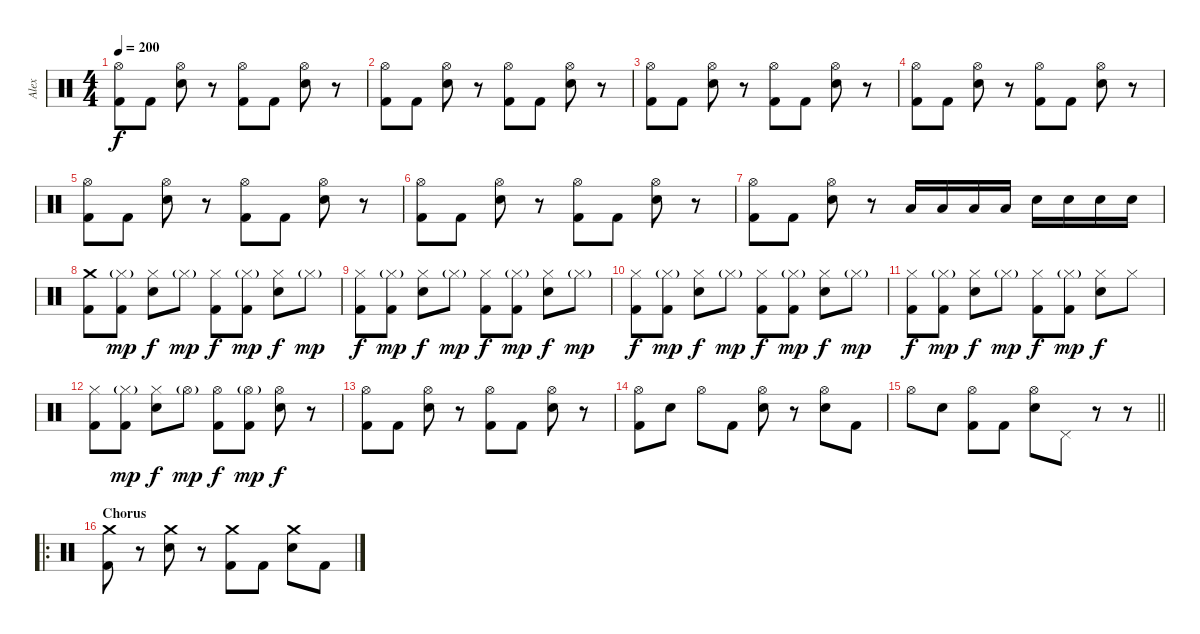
\track ("Alex" "Alex") {instrument percussion}
\staff {score}
\articulation defaults
\ts (4 4)
\tempo 200
\clef neutral
\ks c
("Hi-Hat (open)" "Kick (hit) 2").8{dy f} "Kick (hit) 2".8 ("Hi-Hat (open)" "Electric Snare (hit)").8 r.8 ("Hi-Hat (open)" "Kick (hit) 2").8 "Kick (hit) 2".8 ("Hi-Hat (open)" "Electric Snare (hit)").8 r.8 |
("Hi-Hat (open)" "Kick (hit) 2").8 "Kick (hit) 2".8 ("Hi-Hat (open)" "Electric Snare (hit)").8 r.8 ("Hi-Hat (open)" "Kick (hit) 2").8 "Kick (hit) 2".8 ("Hi-Hat (open)" "Electric Snare (hit)").8 r.8 |
("Hi-Hat (open)" "Kick (hit) 2").8 "Kick (hit) 2".8 ("Hi-Hat (open)" "Electric Snare (hit)").8 r.8 ("Hi-Hat (open)" "Kick (hit) 2").8 "Kick (hit) 2".8 ("Hi-Hat (open)" "Electric Snare (hit)").8 r.8 |
("Hi-Hat (open)" "Kick (hit) 2").8 "Kick (hit) 2".8 ("Hi-Hat (open)" "Electric Snare (hit)").8 r.8 ("Hi-Hat (open)" "Kick (hit) 2").8 "Kick (hit) 2".8 ("Hi-Hat (open)" "Electric Snare (hit)").8 r.8 |
("Hi-Hat (open)" "Kick (hit) 2").8 "Kick (hit) 2".8 ("Hi-Hat (open)" "Electric Snare (hit)").8 r.8 ("Hi-Hat (open)" "Kick (hit) 2").8 "Kick (hit) 2".8 ("Hi-Hat (open)" "Electric Snare (hit)").8 r.8 |
("Hi-Hat (open)" "Kick (hit) 2").8 "Kick (hit) 2".8 ("Hi-Hat (open)" "Electric Snare (hit)").8 r.8 ("Hi-Hat (open)" "Kick (hit) 2").8 "Kick (hit) 2".8 ("Hi-Hat (open)" "Electric Snare (hit)").8 r.8 |
("Hi-Hat (open)" "Kick (hit) 2").8 "Kick (hit) 2".8 ("Hi-Hat (open)" "Electric Snare (hit)").8 r.8 "Low Tom (hit)".16 "Low Tom (hit)".16 "Low Tom (hit)".16 "Low Tom (hit)".16 "Electric Snare (hit)".16 "Electric Snare (hit)".16 "Electric Snare (hit)".16 "Electric Snare (hit)".16 |
("Crash medium (hit)" "Kick (hit) 2").8 ("Hi-Hat (closed)"{g} "Kick (hit) 2").8{dy mp} ("Hi-Hat (closed)" "Electric Snare (hit)").8{dy f} "Hi-Hat (closed)"{g}.8{dy mp} ("Hi-Hat (closed)" "Kick (hit) 2").8{dy f} ("Hi-Hat (closed)"{g} "Kick (hit) 2").8{dy mp} ("Hi-Hat (closed)" "Electric Snare (hit)").8{dy f} "Hi-Hat (closed)"{g}.8{dy mp} |
("Hi-Hat (closed)" "Kick (hit) 2").8{dy f} ("Hi-Hat (closed)"{g} "Kick (hit) 2").8{dy mp} ("Hi-Hat (closed)" "Electric Snare (hit)").8{dy f} "Hi-Hat (closed)"{g}.8{dy mp} ("Hi-Hat (closed)" "Kick (hit) 2").8{dy f} ("Hi-Hat (closed)"{g} "Kick (hit) 2").8{dy mp} ("Hi-Hat (closed)" "Electric Snare (hit)").8{dy f} "Hi-Hat (closed)"{g}.8{dy mp} |
("Hi-Hat (closed)" "Kick (hit) 2").8{dy f} ("Hi-Hat (closed)"{g} "Kick (hit) 2").8{dy mp} ("Hi-Hat (closed)" "Electric Snare (hit)").8{dy f} "Hi-Hat (closed)"{g}.8{dy mp} ("Hi-Hat (closed)" "Kick (hit) 2").8{dy f} ("Hi-Hat (closed)"{g} "Kick (hit) 2").8{dy mp} ("Hi-Hat (closed)" "Electric Snare (hit)").8{dy f} "Hi-Hat (closed)"{g}.8{dy mp} |
("Hi-Hat (closed)" "Kick (hit) 2").8{dy f} ("Hi-Hat (closed)"{g} "Kick (hit) 2").8{dy mp} ("Hi-Hat (closed)" "Electric Snare (hit)").8{dy f} "Hi-Hat (closed)"{g}.8{dy mp} ("Hi-Hat (closed)" "Kick (hit) 2").8{dy f} ("Hi-Hat (closed)"{g} "Kick (hit) 2").8{dy mp} ("Hi-Hat (closed)" "Electric Snare (hit)").8{dy f} "Hi-Hat (closed)".8 |
("Hi-Hat (closed)" "Kick (hit) 2").8 ("Hi-Hat (closed)"{g} "Kick (hit) 2").8{dy mp} ("Hi-Hat (closed)" "Electric Snare (hit)").8{dy f} "Hi-Hat (open)"{g}.8{dy mp} ("Hi-Hat (open)" "Kick (hit) 2").8{dy f} ("Hi-Hat (open)"{g} "Kick (hit) 2").8{dy mp} ("Hi-Hat (open)" "Electric Snare (hit)").8{dy f} r.8 |
("Hi-Hat (open)" "Kick (hit) 2").8 "Kick (hit) 2".8 ("Hi-Hat (open)" "Electric Snare (hit)").8 r.8 ("Hi-Hat (open)" "Kick (hit) 2").8 "Kick (hit) 2".8 ("Hi-Hat (open)" "Electric Snare (hit)").8 r.8 |
("Hi-Hat (open)" "Kick (hit) 2").8 "Electric Snare (hit)".8 "Hi-Hat (open)".8 "Kick (hit) 2".8 ("Hi-Hat (open)" "Electric Snare (hit)").8 r.8 ("Hi-Hat (open)" "Electric Snare (hit)").8 "Kick (hit) 2".8 |
\barLineRight lightlight "Hi-Hat (open)".8 "Electric Snare (hit)".8
("Hi-Hat (open)" "Kick (hit) 2").8 "Kick (hit) 2".8 ("Hi-Hat (open)" "Electric Snare (hit)").8 "Pedal Hi-Hat (hit)".8 r.8 r.8 |
\ro
\section ("" "Chorus")
("Crash medium (hit)" "Kick (hit) 2").8 r.8 ("Crash medium (hit)" "Electric Snare (hit)").8 r.8 ("Crash medium (hit)" "Kick (hit) 2").8 "Kick (hit) 2".8 ("Crash medium (hit)" "Electric Snare (hit)").8 "Kick (hit) 2".8
